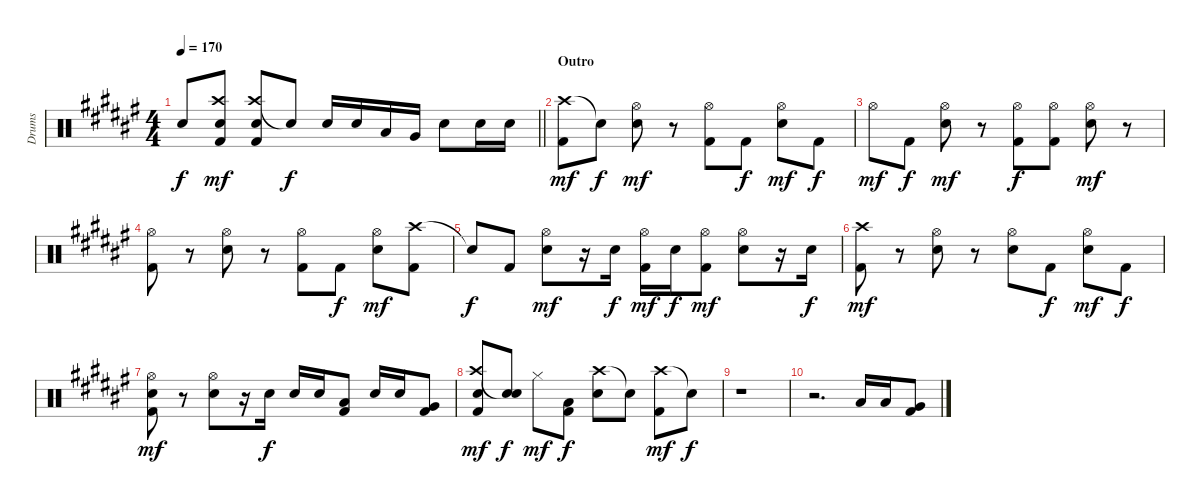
\track ("Drums" "Drums") {instrument percussion}
\staff {score}
\articulation defaults
\ts (4 4)
\tempo 170
\clef neutral
\barLineRight lightlight
\ks f# "Snare (hit)"{t}.8{dy f}
("Crash high (hit)" "Snare (hit) 2" "Kick (hit) 2").8{dy mf} ("Crash high (hit)" "Snare (hit) 2" "Kick (hit) 2").8 "Snare (hit)"{t}.8{dy f} "Snare (hit) 2".16 "Snare (hit) 2".16 "Low Tom (hit)".16 "Very Low Tom (hit)".16 "Snare (hit) 2".8 "Snare (hit) 2".16 "Snare (hit) 2".16 |
\section ("" "Outro")
("Crash high (hit)" "Kick (hit) 2").8{dy mf} "Snare (hit)"{t}.8{dy f} ("Hi-Hat (open)" "Snare (hit) 2").8{dy mf} r.8 ("Hi-Hat (open)" "Kick (hit) 2").8 "Kick (hit) 2".8{dy f} ("Hi-Hat (open)" "Snare (hit) 2").8{dy mf} "Kick (hit) 2".8{dy f} |
"Hi-Hat (open)".8{dy mf} "Kick (hit) 2".8{dy f} ("Hi-Hat (open)" "Snare (hit) 2").8{dy mf} r.8 ("Hi-Hat (open)" "Kick (hit) 2").8{dy f} ("Hi-Hat (open)" "Kick (hit) 2").8 ("Hi-Hat (open)" "Snare (hit) 2").8{dy mf} r.8 |
("Hi-Hat (open)" "Kick (hit) 2").8 r.8 ("Hi-Hat (open)" "Snare (hit) 2").8 r.8 ("Hi-Hat (open)" "Kick (hit) 2").8 "Kick (hit) 2".8{dy f} ("Hi-Hat (open)" "Snare (hit) 2").8{dy mf} ("Crash high (hit)" "Kick (hit) 2").8 |
"Snare (hit)"{t}.8{dy f} "Kick (hit) 2".8 ("Hi-Hat (open)" "Snare (hit) 2").8{dy mf} r.16 "Snare (hit) 2".16{dy f} ("Hi-Hat (open)" "Kick (hit) 2").16{dy mf} "Snare (hit) 2".16{dy f} ("Hi-Hat (open)" "Kick (hit) 2").8{dy mf} ("Hi-Hat (open)" "Snare (hit) 2").8 r.16 "Snare (hit) 2".16{dy f} |
("Crash high (hit)" "Kick (hit) 2").8{dy mf} r.8 ("Hi-Hat (open)" "Snare (hit) 2").8 r.8 ("Hi-Hat (open)" "Snare (hit) 2").8 "Kick (hit) 2".8{dy f} ("Hi-Hat (open)" "Snare (hit) 2").8{dy mf} "Kick (hit) 2".8{dy f} |
("Hi-Hat (open)" "Snare (hit) 2" "Kick (hit) 2").8{dy mf} r.8 ("Hi-Hat (open)" "Snare (hit) 2").8 r.16 "Snare (hit) 2".16{dy f} "Snare (hit) 2".16 "Snare (hit) 2".16 ("Low Tom (hit)" "Kick (hit) 2").8 "Snare (hit) 2".16 "Snare (hit) 2".16 ("Very Low Tom (hit)" "Kick (hit) 2").8 |
("Crash high (hit)" "Snare (hit) 2" "Kick (hit) 2").8{dy mf} ("Snare (hit) 2"{t} "Snare (hit) 2").8{dy f} "Hi-Hat (closed)".8{dy mf} ("Low Tom (hit)" "Kick (hit) 2").8{dy f} ("Crash high (hit)" "Snare (hit) 2").8 "Snare (hit)"{t}.8 ("Crash high (hit)" "Kick (hit) 2").8{dy mf} "Snare (hit)"{t}.8{dy f} |
r.1 |
r.2{d} "Low Tom (hit)".16 "Low Tom (hit)".16 ("Very Low Tom (hit)" "Kick (hit) 2").8
